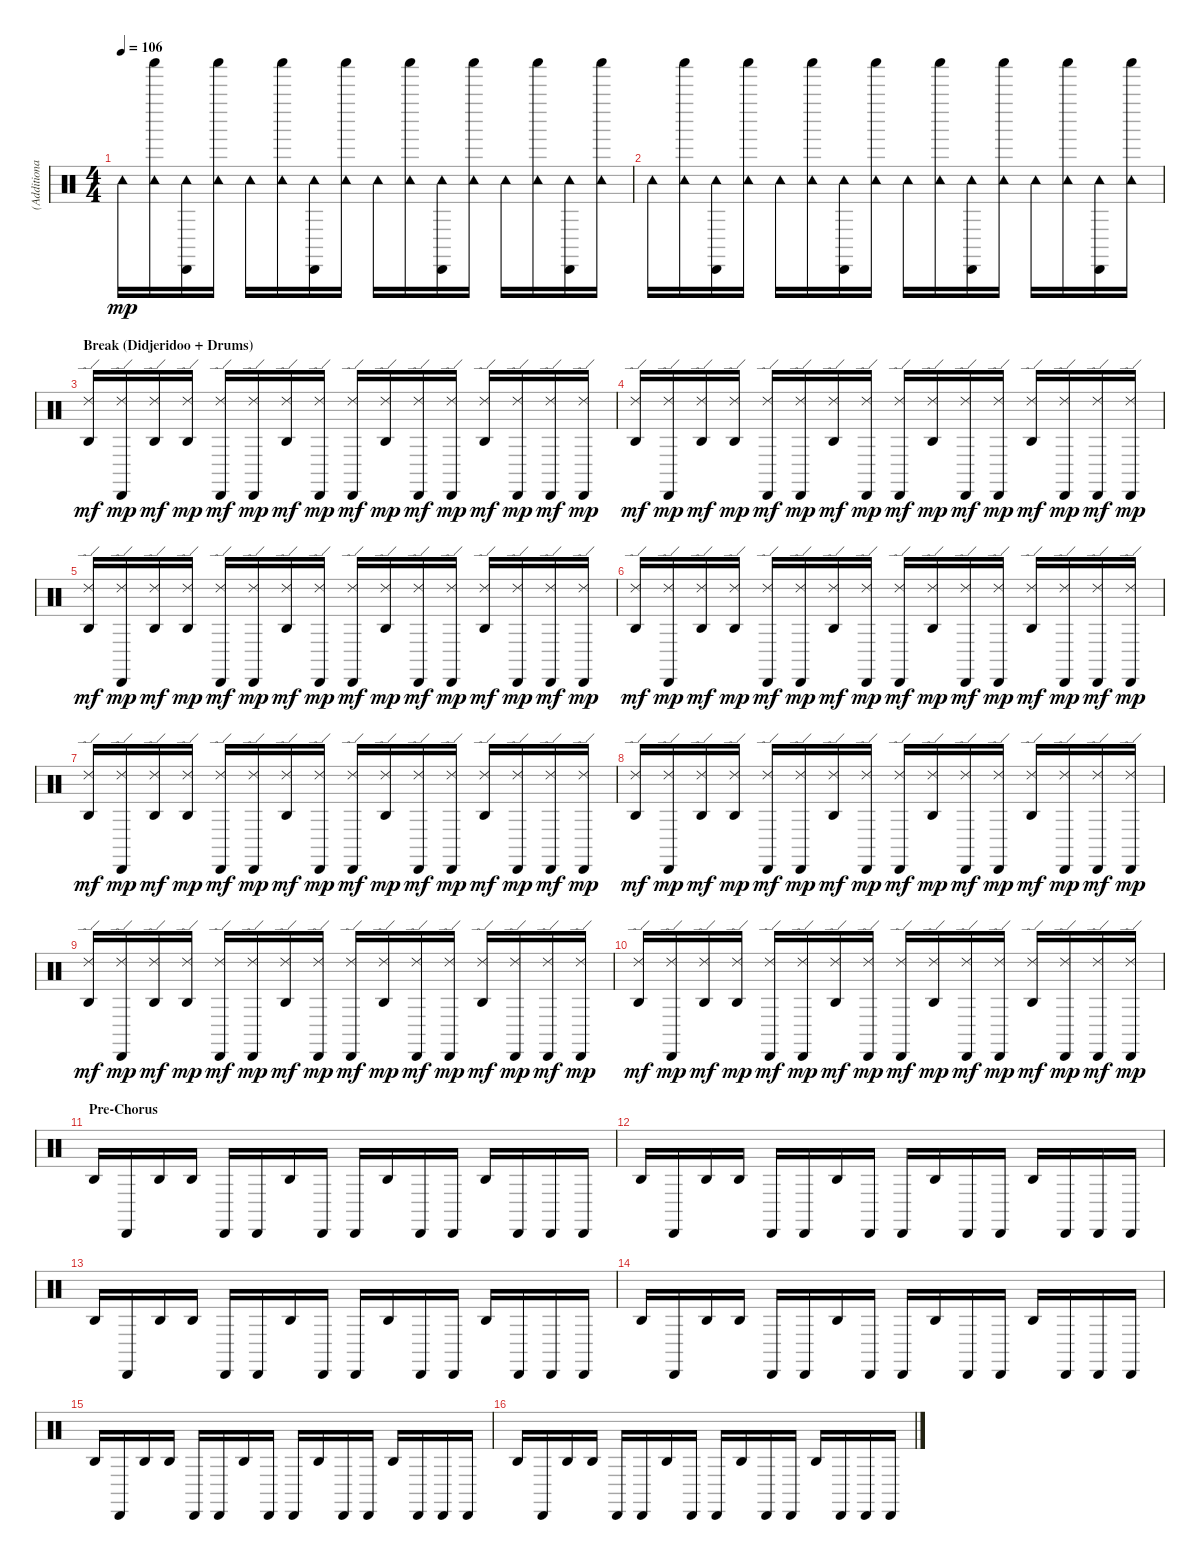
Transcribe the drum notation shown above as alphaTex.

\track ("(Additional Percussions)" "(Additiona") {instrument percussion}
\staff {score}
\articulation defaults
\ts (4 4)
\tempo 106
\clef neutral
\ks c "Tambourine (hit)".16{dy mp}
("Tambourine (hit)" "Shaker (hit)").16 ("Cabasa (hit)" "Tambourine (hit)").16 ("Tambourine (hit)" "Shaker (hit)").16 "Tambourine (hit)".16 ("Tambourine (hit)" "Shaker (hit)").16 ("Cabasa (hit)" "Tambourine (hit)").16 ("Tambourine (hit)" "Shaker (hit)").16 "Tambourine (hit)".16 ("Tambourine (hit)" "Shaker (hit)").16 ("Cabasa (hit)" "Tambourine (hit)").16 ("Tambourine (hit)" "Shaker (hit)").16 "Tambourine (hit)".16 ("Tambourine (hit)" "Shaker (hit)").16 ("Cabasa (hit)" "Tambourine (hit)").16 ("Tambourine (hit)" "Shaker (hit)").16 |
"Tambourine (hit)".16 ("Tambourine (hit)" "Shaker (hit)").16 ("Cabasa (hit)" "Tambourine (hit)").16 ("Tambourine (hit)" "Shaker (hit)").16 "Tambourine (hit)".16 ("Tambourine (hit)" "Shaker (hit)").16 ("Cabasa (hit)" "Tambourine (hit)").16 ("Tambourine (hit)" "Shaker (hit)").16 "Tambourine (hit)".16 ("Tambourine (hit)" "Shaker (hit)").16 ("Cabasa (hit)" "Tambourine (hit)").16 ("Tambourine (hit)" "Shaker (hit)").16 "Tambourine (hit)".16 ("Tambourine (hit)" "Shaker (hit)").16 ("Cabasa (hit)" "Tambourine (hit)").16 ("Tambourine (hit)" "Shaker (hit)").16 |
\section ("" "Break (Didjeridoo + Drums)")
("Agogo high (hit)" "Ride (edge) 2").16{dy mf} ("Cabasa (hit)" "Ride (edge) 2").16{dy mp} ("Agogo high (hit)" "Ride (edge) 2").16{dy mf} ("Agogo high (hit)" "Ride (edge) 2").16{dy mp} ("Cabasa (hit)" "Ride (edge) 2").16{dy mf} ("Cabasa (hit)" "Ride (edge) 2").16{dy mp} ("Agogo high (hit)" "Ride (edge) 2").16{dy mf} ("Cabasa (hit)" "Ride (edge) 2").16{dy mp} ("Cabasa (hit)" "Ride (edge) 2").16{dy mf} ("Agogo high (hit)" "Ride (edge) 2").16{dy mp} ("Cabasa (hit)" "Ride (edge) 2").16{dy mf} ("Cabasa (hit)" "Ride (edge) 2").16{dy mp} ("Agogo high (hit)" "Ride (edge) 2").16{dy mf} ("Cabasa (hit)" "Ride (edge) 2").16{dy mp} ("Cabasa (hit)" "Ride (edge) 2").16{dy mf} ("Cabasa (hit)" "Ride (edge) 2").16{dy mp} |
("Agogo high (hit)" "Ride (edge) 2").16{dy mf} ("Cabasa (hit)" "Ride (edge) 2").16{dy mp} ("Agogo high (hit)" "Ride (edge) 2").16{dy mf} ("Agogo high (hit)" "Ride (edge) 2").16{dy mp} ("Cabasa (hit)" "Ride (edge) 2").16{dy mf} ("Cabasa (hit)" "Ride (edge) 2").16{dy mp} ("Agogo high (hit)" "Ride (edge) 2").16{dy mf} ("Cabasa (hit)" "Ride (edge) 2").16{dy mp} ("Cabasa (hit)" "Ride (edge) 2").16{dy mf} ("Agogo high (hit)" "Ride (edge) 2").16{dy mp} ("Cabasa (hit)" "Ride (edge) 2").16{dy mf} ("Cabasa (hit)" "Ride (edge) 2").16{dy mp} ("Agogo high (hit)" "Ride (edge) 2").16{dy mf} ("Cabasa (hit)" "Ride (edge) 2").16{dy mp} ("Cabasa (hit)" "Ride (edge) 2").16{dy mf} ("Cabasa (hit)" "Ride (edge) 2").16{dy mp} |
("Agogo high (hit)" "Ride (edge) 2").16{dy mf} ("Cabasa (hit)" "Ride (edge) 2").16{dy mp} ("Agogo high (hit)" "Ride (edge) 2").16{dy mf} ("Agogo high (hit)" "Ride (edge) 2").16{dy mp} ("Cabasa (hit)" "Ride (edge) 2").16{dy mf} ("Cabasa (hit)" "Ride (edge) 2").16{dy mp} ("Agogo high (hit)" "Ride (edge) 2").16{dy mf} ("Cabasa (hit)" "Ride (edge) 2").16{dy mp} ("Cabasa (hit)" "Ride (edge) 2").16{dy mf} ("Agogo high (hit)" "Ride (edge) 2").16{dy mp} ("Cabasa (hit)" "Ride (edge) 2").16{dy mf} ("Cabasa (hit)" "Ride (edge) 2").16{dy mp} ("Agogo high (hit)" "Ride (edge) 2").16{dy mf} ("Cabasa (hit)" "Ride (edge) 2").16{dy mp} ("Cabasa (hit)" "Ride (edge) 2").16{dy mf} ("Cabasa (hit)" "Ride (edge) 2").16{dy mp} |
("Agogo high (hit)" "Ride (edge) 2").16{dy mf} ("Cabasa (hit)" "Ride (edge) 2").16{dy mp} ("Agogo high (hit)" "Ride (edge) 2").16{dy mf} ("Agogo high (hit)" "Ride (edge) 2").16{dy mp} ("Cabasa (hit)" "Ride (edge) 2").16{dy mf} ("Cabasa (hit)" "Ride (edge) 2").16{dy mp} ("Agogo high (hit)" "Ride (edge) 2").16{dy mf} ("Cabasa (hit)" "Ride (edge) 2").16{dy mp} ("Cabasa (hit)" "Ride (edge) 2").16{dy mf} ("Agogo high (hit)" "Ride (edge) 2").16{dy mp} ("Cabasa (hit)" "Ride (edge) 2").16{dy mf} ("Cabasa (hit)" "Ride (edge) 2").16{dy mp} ("Agogo high (hit)" "Ride (edge) 2").16{dy mf} ("Cabasa (hit)" "Ride (edge) 2").16{dy mp} ("Cabasa (hit)" "Ride (edge) 2").16{dy mf} ("Cabasa (hit)" "Ride (edge) 2").16{dy mp} |
("Agogo high (hit)" "Ride (edge) 2").16{dy mf} ("Cabasa (hit)" "Ride (edge) 2").16{dy mp} ("Agogo high (hit)" "Ride (edge) 2").16{dy mf} ("Agogo high (hit)" "Ride (edge) 2").16{dy mp} ("Cabasa (hit)" "Ride (edge) 2").16{dy mf} ("Cabasa (hit)" "Ride (edge) 2").16{dy mp} ("Agogo high (hit)" "Ride (edge) 2").16{dy mf} ("Cabasa (hit)" "Ride (edge) 2").16{dy mp} ("Cabasa (hit)" "Ride (edge) 2").16{dy mf} ("Agogo high (hit)" "Ride (edge) 2").16{dy mp} ("Cabasa (hit)" "Ride (edge) 2").16{dy mf} ("Cabasa (hit)" "Ride (edge) 2").16{dy mp} ("Agogo high (hit)" "Ride (edge) 2").16{dy mf} ("Cabasa (hit)" "Ride (edge) 2").16{dy mp} ("Cabasa (hit)" "Ride (edge) 2").16{dy mf} ("Cabasa (hit)" "Ride (edge) 2").16{dy mp} |
("Agogo high (hit)" "Ride (edge) 2").16{dy mf} ("Cabasa (hit)" "Ride (edge) 2").16{dy mp} ("Agogo high (hit)" "Ride (edge) 2").16{dy mf} ("Agogo high (hit)" "Ride (edge) 2").16{dy mp} ("Cabasa (hit)" "Ride (edge) 2").16{dy mf} ("Cabasa (hit)" "Ride (edge) 2").16{dy mp} ("Agogo high (hit)" "Ride (edge) 2").16{dy mf} ("Cabasa (hit)" "Ride (edge) 2").16{dy mp} ("Cabasa (hit)" "Ride (edge) 2").16{dy mf} ("Agogo high (hit)" "Ride (edge) 2").16{dy mp} ("Cabasa (hit)" "Ride (edge) 2").16{dy mf} ("Cabasa (hit)" "Ride (edge) 2").16{dy mp} ("Agogo high (hit)" "Ride (edge) 2").16{dy mf} ("Cabasa (hit)" "Ride (edge) 2").16{dy mp} ("Cabasa (hit)" "Ride (edge) 2").16{dy mf} ("Cabasa (hit)" "Ride (edge) 2").16{dy mp} |
("Agogo high (hit)" "Ride (edge) 2").16{dy mf} ("Cabasa (hit)" "Ride (edge) 2").16{dy mp} ("Agogo high (hit)" "Ride (edge) 2").16{dy mf} ("Agogo high (hit)" "Ride (edge) 2").16{dy mp} ("Cabasa (hit)" "Ride (edge) 2").16{dy mf} ("Cabasa (hit)" "Ride (edge) 2").16{dy mp} ("Agogo high (hit)" "Ride (edge) 2").16{dy mf} ("Cabasa (hit)" "Ride (edge) 2").16{dy mp} ("Cabasa (hit)" "Ride (edge) 2").16{dy mf} ("Agogo high (hit)" "Ride (edge) 2").16{dy mp} ("Cabasa (hit)" "Ride (edge) 2").16{dy mf} ("Cabasa (hit)" "Ride (edge) 2").16{dy mp} ("Agogo high (hit)" "Ride (edge) 2").16{dy mf} ("Cabasa (hit)" "Ride (edge) 2").16{dy mp} ("Cabasa (hit)" "Ride (edge) 2").16{dy mf} ("Cabasa (hit)" "Ride (edge) 2").16{dy mp} |
("Agogo high (hit)" "Ride (edge) 2").16{dy mf} ("Cabasa (hit)" "Ride (edge) 2").16{dy mp} ("Agogo high (hit)" "Ride (edge) 2").16{dy mf} ("Agogo high (hit)" "Ride (edge) 2").16{dy mp} ("Cabasa (hit)" "Ride (edge) 2").16{dy mf} ("Cabasa (hit)" "Ride (edge) 2").16{dy mp} ("Agogo high (hit)" "Ride (edge) 2").16{dy mf} ("Cabasa (hit)" "Ride (edge) 2").16{dy mp} ("Cabasa (hit)" "Ride (edge) 2").16{dy mf} ("Agogo high (hit)" "Ride (edge) 2").16{dy mp} ("Cabasa (hit)" "Ride (edge) 2").16{dy mf} ("Cabasa (hit)" "Ride (edge) 2").16{dy mp} ("Agogo high (hit)" "Ride (edge) 2").16{dy mf} ("Cabasa (hit)" "Ride (edge) 2").16{dy mp} ("Cabasa (hit)" "Ride (edge) 2").16{dy mf} ("Cabasa (hit)" "Ride (edge) 2").16{dy mp} |
\section ("" "Pre-Chorus")
"Agogo high (hit)".16 "Cabasa (hit)".16 "Agogo high (hit)".16 "Agogo high (hit)".16 "Cabasa (hit)".16 "Cabasa (hit)".16 "Agogo high (hit)".16 "Cabasa (hit)".16 "Cabasa (hit)".16 "Agogo high (hit)".16 "Cabasa (hit)".16 "Cabasa (hit)".16 "Agogo high (hit)".16 "Cabasa (hit)".16 "Cabasa (hit)".16 "Cabasa (hit)".16 |
"Agogo high (hit)".16 "Cabasa (hit)".16 "Agogo high (hit)".16 "Agogo high (hit)".16 "Cabasa (hit)".16 "Cabasa (hit)".16 "Agogo high (hit)".16 "Cabasa (hit)".16 "Cabasa (hit)".16 "Agogo high (hit)".16 "Cabasa (hit)".16 "Cabasa (hit)".16 "Agogo high (hit)".16 "Cabasa (hit)".16 "Cabasa (hit)".16 "Cabasa (hit)".16 |
"Agogo high (hit)".16 "Cabasa (hit)".16 "Agogo high (hit)".16 "Agogo high (hit)".16 "Cabasa (hit)".16 "Cabasa (hit)".16 "Agogo high (hit)".16 "Cabasa (hit)".16 "Cabasa (hit)".16 "Agogo high (hit)".16 "Cabasa (hit)".16 "Cabasa (hit)".16 "Agogo high (hit)".16 "Cabasa (hit)".16 "Cabasa (hit)".16 "Cabasa (hit)".16 |
"Agogo high (hit)".16 "Cabasa (hit)".16 "Agogo high (hit)".16 "Agogo high (hit)".16 "Cabasa (hit)".16 "Cabasa (hit)".16 "Agogo high (hit)".16 "Cabasa (hit)".16 "Cabasa (hit)".16 "Agogo high (hit)".16 "Cabasa (hit)".16 "Cabasa (hit)".16 "Agogo high (hit)".16 "Cabasa (hit)".16 "Cabasa (hit)".16 "Cabasa (hit)".16 |
"Agogo high (hit)".16 "Cabasa (hit)".16 "Agogo high (hit)".16 "Agogo high (hit)".16 "Cabasa (hit)".16 "Cabasa (hit)".16 "Agogo high (hit)".16 "Cabasa (hit)".16 "Cabasa (hit)".16 "Agogo high (hit)".16 "Cabasa (hit)".16 "Cabasa (hit)".16 "Agogo high (hit)".16 "Cabasa (hit)".16 "Cabasa (hit)".16 "Cabasa (hit)".16 |
"Agogo high (hit)".16 "Cabasa (hit)".16 "Agogo high (hit)".16 "Agogo high (hit)".16 "Cabasa (hit)".16 "Cabasa (hit)".16 "Agogo high (hit)".16 "Cabasa (hit)".16 "Cabasa (hit)".16 "Agogo high (hit)".16 "Cabasa (hit)".16 "Cabasa (hit)".16 "Agogo high (hit)".16 "Cabasa (hit)".16 "Cabasa (hit)".16 "Cabasa (hit)".16
